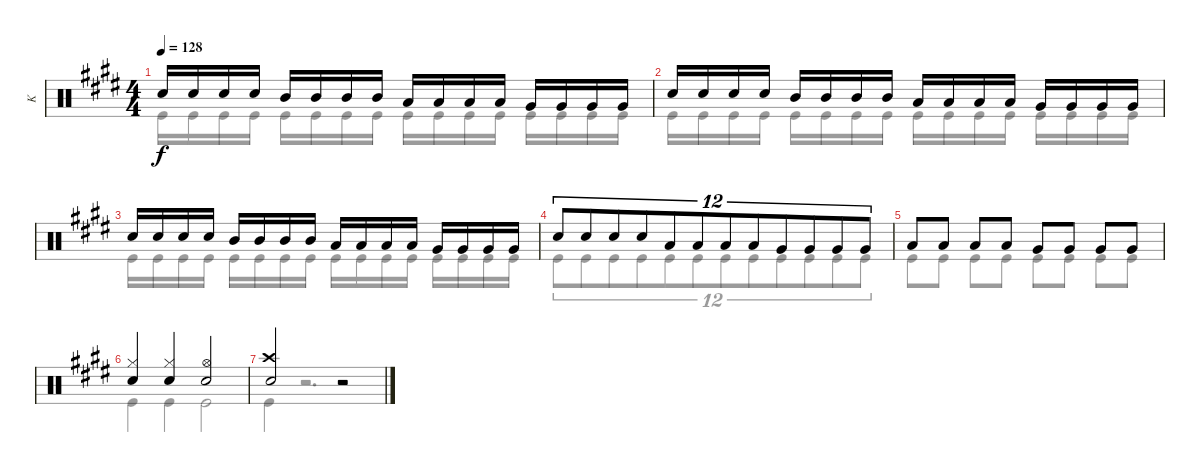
\track ("K" "K") {instrument percussion}
\staff {score}
\articulation defaults
\voice
\ts (4 4)
\tempo 128
\clef neutral
\ks e "Snare (hit) 2".16{dy f} "Snare (hit) 2".16 "Snare (hit) 2".16 "Snare (hit) 2".16 "Mid Tom (hit)".16 "Mid Tom (hit)".16 "Mid Tom (hit)".16 "Mid Tom (hit)".16 "Low Tom (hit)".16 "Low Tom (hit)".16 "Low Tom (hit)".16 "Low Tom (hit)".16 "Very Low Tom (hit)".16 "Very Low Tom (hit)".16 "Very Low Tom (hit)".16 "Very Low Tom (hit)".16
|
"Snare (hit) 2".16 "Snare (hit) 2".16 "Snare (hit) 2".16 "Snare (hit) 2".16 "Mid Tom (hit)".16 "Mid Tom (hit)".16 "Mid Tom (hit)".16 "Mid Tom (hit)".16 "Low Tom (hit)".16 "Low Tom (hit)".16 "Low Tom (hit)".16 "Low Tom (hit)".16 "Very Low Tom (hit)".16 "Very Low Tom (hit)".16 "Very Low Tom (hit)".16 "Very Low Tom (hit)".16 |
"Snare (hit) 2".16 "Snare (hit) 2".16 "Snare (hit) 2".16 "Snare (hit) 2".16 "Mid Tom (hit)".16 "Mid Tom (hit)".16 "Mid Tom (hit)".16 "Mid Tom (hit)".16 "Low Tom (hit)".16 "Low Tom (hit)".16 "Low Tom (hit)".16 "Low Tom (hit)".16 "Very Low Tom (hit)".16 "Very Low Tom (hit)".16 "Very Low Tom (hit)".16 "Very Low Tom (hit)".16 |
"Snare (hit) 2".8{tu (12 8)} "Snare (hit) 2".8{tu (12 8)} "Snare (hit) 2".8{tu (12 8)} "Snare (hit) 2".8{tu (12 8)} "Low Tom (hit)".8{tu (12 8)} "Low Tom (hit)".8{tu (12 8)} "Low Tom (hit)".8{tu (12 8)} "Low Tom (hit)".8{tu (12 8)} "Very Low Tom (hit)".8{tu (12 8)} "Very Low Tom (hit)".8{tu (12 8)} "Very Low Tom (hit)".8{tu (12 8)} "Very Low Tom (hit)".8{tu (12 8)} |
"Low Tom (hit)".8 "Low Tom (hit)".8 "Low Tom (hit)".8 "Low Tom (hit)".8 "Very Low Tom (hit)".8 "Very Low Tom (hit)".8 "Very Low Tom (hit)".8 "Very Low Tom (hit)".8 |
("Hi-Hat (closed)" "Snare (hit) 2").4 ("Hi-Hat (closed)" "Snare (hit) 2").4 ("Hi-Hat (open)" "Snare (hit) 2").2 |
("Crash high (hit)" "Snare (hit) 2").2 r.2
\voice
\clef neutral
\ottava regular
\simile none
\ks e "Kick (hit)".16{dy f} "Kick (hit)".16 "Kick (hit)".16 "Kick (hit)".16 "Kick (hit)".16 "Kick (hit)".16 "Kick (hit)".16 "Kick (hit)".16 "Kick (hit)".16 "Kick (hit)".16 "Kick (hit)".16 "Kick (hit)".16 "Kick (hit)".16 "Kick (hit)".16 "Kick (hit)".16 "Kick (hit)".16
|
"Kick (hit)".16 "Kick (hit)".16 "Kick (hit)".16 "Kick (hit)".16 "Kick (hit)".16 "Kick (hit)".16 "Kick (hit)".16 "Kick (hit)".16 "Kick (hit)".16 "Kick (hit)".16 "Kick (hit)".16 "Kick (hit)".16 "Kick (hit)".16 "Kick (hit)".16 "Kick (hit)".16 "Kick (hit)".16 |
"Kick (hit)".16 "Kick (hit)".16 "Kick (hit)".16 "Kick (hit)".16 "Kick (hit)".16 "Kick (hit)".16 "Kick (hit)".16 "Kick (hit)".16 "Kick (hit)".16 "Kick (hit)".16 "Kick (hit)".16 "Kick (hit)".16 "Kick (hit)".16 "Kick (hit)".16 "Kick (hit)".16 "Kick (hit)".16 |
"Kick (hit)".8{tu (12 8)} "Kick (hit)".8{tu (12 8)} "Kick (hit)".8{tu (12 8)} "Kick (hit)".8{tu (12 8)} "Kick (hit)".8{tu (12 8)} "Kick (hit)".8{tu (12 8)} "Kick (hit)".8{tu (12 8)} "Kick (hit)".8{tu (12 8)} "Kick (hit)".8{tu (12 8)} "Kick (hit)".8{tu (12 8)} "Kick (hit)".8{tu (12 8)} "Kick (hit)".8{tu (12 8)} |
"Kick (hit)".8 "Kick (hit)".8 "Kick (hit)".8 "Kick (hit)".8 "Kick (hit)".8 "Kick (hit)".8 "Kick (hit)".8 "Kick (hit)".8 |
"Kick (hit)".4 "Kick (hit)".4 "Kick (hit)".2 |
"Kick (hit)".4 r.2{d}
